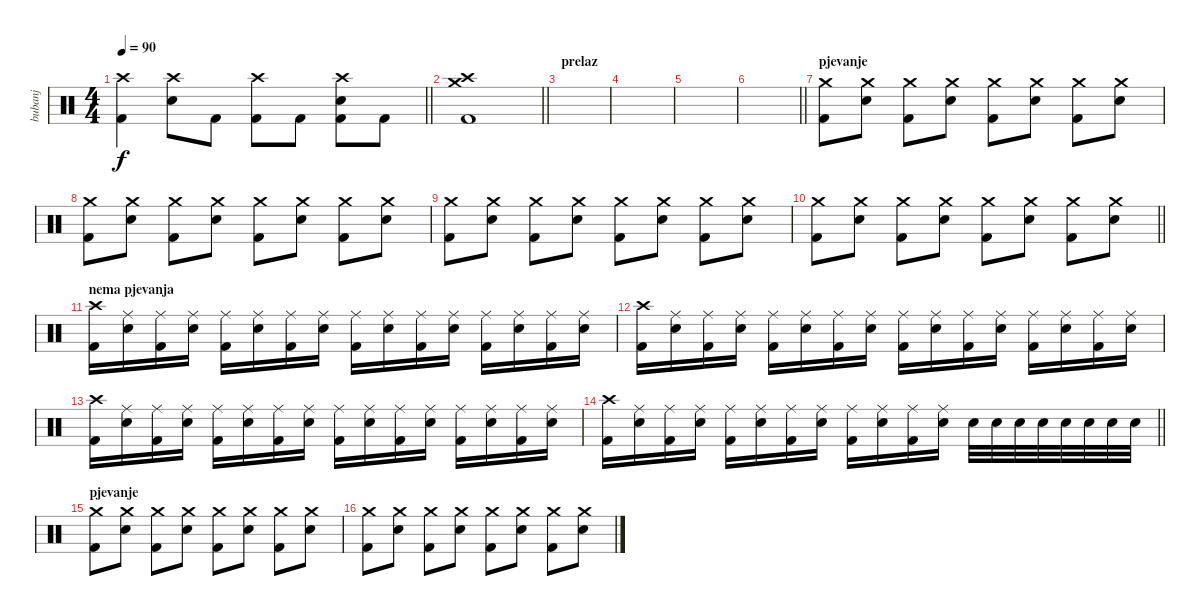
\track ("bubanj" "bubanj") {instrument percussion}
\staff {score}
\articulation defaults
\ts (4 4)
\tempo 90
\clef neutral
\barLineRight lightlight
\ks c
("Crash high (hit)" "Kick (hit) 2").4{dy f} ("Crash high (hit)" "Electric Snare (hit)").8 "Kick (hit) 2".8 ("Crash high (hit)" "Kick (hit) 2").8 "Kick (hit) 2".8 ("Crash high (hit)" "Electric Snare (hit)" "Kick (hit) 2").8 "Kick (hit) 2".8 |
\barLineRight lightlight
("Crash medium (hit)" "Crash high (hit)" "Kick (hit) 2").1 |
\section ("" "prelaz")
|
|
|
\barLineRight lightlight
|
\section ("" "pjevanje")
("Crash medium (hit)" "Kick (hit) 2").8 ("Crash medium (hit)" "Electric Snare (hit)").8 ("Crash medium (hit)" "Kick (hit) 2").8 ("Crash medium (hit)" "Electric Snare (hit)").8 ("Crash medium (hit)" "Kick (hit) 2").8 ("Crash medium (hit)" "Electric Snare (hit)").8 ("Crash medium (hit)" "Kick (hit) 2").8 ("Crash medium (hit)" "Electric Snare (hit)").8 |
("Crash medium (hit)" "Kick (hit) 2").8 ("Crash medium (hit)" "Electric Snare (hit)").8 ("Crash medium (hit)" "Kick (hit) 2").8 ("Crash medium (hit)" "Electric Snare (hit)").8 ("Crash medium (hit)" "Kick (hit) 2").8 ("Crash medium (hit)" "Electric Snare (hit)").8 ("Crash medium (hit)" "Kick (hit) 2").8 ("Crash medium (hit)" "Electric Snare (hit)").8 |
("Crash medium (hit)" "Kick (hit) 2").8 ("Crash medium (hit)" "Electric Snare (hit)").8 ("Crash medium (hit)" "Kick (hit) 2").8 ("Crash medium (hit)" "Electric Snare (hit)").8 ("Crash medium (hit)" "Kick (hit) 2").8 ("Crash medium (hit)" "Electric Snare (hit)").8 ("Crash medium (hit)" "Kick (hit) 2").8 ("Crash medium (hit)" "Electric Snare (hit)").8 |
\barLineRight lightlight
("Crash medium (hit)" "Kick (hit) 2").8 ("Crash medium (hit)" "Electric Snare (hit)").8 ("Crash medium (hit)" "Kick (hit) 2").8 ("Crash medium (hit)" "Electric Snare (hit)").8 ("Crash medium (hit)" "Kick (hit) 2").8 ("Crash medium (hit)" "Electric Snare (hit)").8 ("Crash medium (hit)" "Kick (hit) 2").8 ("Crash medium (hit)" "Electric Snare (hit)").8 |
\section ("" "nema pjevanja")
("Crash high (hit)" "Kick (hit) 2").16 ("Ride (middle)" "Electric Snare (hit)").16 ("Ride (middle)" "Kick (hit) 2").16 ("Ride (middle)" "Electric Snare (hit)").16 ("Ride (middle)" "Kick (hit) 2").16 ("Ride (middle)" "Electric Snare (hit)").16 ("Ride (middle)" "Kick (hit) 2").16 ("Ride (middle)" "Electric Snare (hit)").16 ("Ride (middle)" "Kick (hit) 2").16 ("Ride (middle)" "Electric Snare (hit)").16 ("Ride (middle)" "Kick (hit) 2").16 ("Ride (middle)" "Electric Snare (hit)").16 ("Ride (middle)" "Kick (hit) 2").16 ("Ride (middle)" "Electric Snare (hit)").16 ("Ride (middle)" "Kick (hit) 2").16 ("Ride (middle)" "Electric Snare (hit)").16 |
("Crash high (hit)" "Kick (hit) 2").16 ("Ride (middle)" "Electric Snare (hit)").16 ("Ride (middle)" "Kick (hit) 2").16 ("Ride (middle)" "Electric Snare (hit)").16 ("Ride (middle)" "Kick (hit) 2").16 ("Ride (middle)" "Electric Snare (hit)").16 ("Ride (middle)" "Kick (hit) 2").16 ("Ride (middle)" "Electric Snare (hit)").16 ("Ride (middle)" "Kick (hit) 2").16 ("Ride (middle)" "Electric Snare (hit)").16 ("Ride (middle)" "Kick (hit) 2").16 ("Ride (middle)" "Electric Snare (hit)").16 ("Ride (middle)" "Kick (hit) 2").16 ("Ride (middle)" "Electric Snare (hit)").16 ("Ride (middle)" "Kick (hit) 2").16 ("Ride (middle)" "Electric Snare (hit)").16 |
("Crash high (hit)" "Kick (hit) 2").16 ("Ride (middle)" "Electric Snare (hit)").16 ("Ride (middle)" "Kick (hit) 2").16 ("Ride (middle)" "Electric Snare (hit)").16 ("Ride (middle)" "Kick (hit) 2").16 ("Ride (middle)" "Electric Snare (hit)").16 ("Ride (middle)" "Kick (hit) 2").16 ("Ride (middle)" "Electric Snare (hit)").16 ("Ride (middle)" "Kick (hit) 2").16 ("Ride (middle)" "Electric Snare (hit)").16 ("Ride (middle)" "Kick (hit) 2").16 ("Ride (middle)" "Electric Snare (hit)").16 ("Ride (middle)" "Kick (hit) 2").16 ("Ride (middle)" "Electric Snare (hit)").16 ("Ride (middle)" "Kick (hit) 2").16 ("Ride (middle)" "Electric Snare (hit)").16 |
\barLineRight lightlight
("Crash high (hit)" "Kick (hit) 2").16 ("Ride (middle)" "Electric Snare (hit)").16 ("Ride (middle)" "Kick (hit) 2").16 ("Ride (middle)" "Electric Snare (hit)").16 ("Ride (middle)" "Kick (hit) 2").16 ("Ride (middle)" "Electric Snare (hit)").16 ("Ride (middle)" "Kick (hit) 2").16 ("Ride (middle)" "Electric Snare (hit)").16 ("Ride (middle)" "Kick (hit) 2").16 ("Ride (middle)" "Electric Snare (hit)").16 ("Ride (middle)" "Kick (hit) 2").16 ("Ride (middle)" "Electric Snare (hit)").16 "Electric Snare (hit)".32 "Electric Snare (hit)".32 "Electric Snare (hit)".32 "Electric Snare (hit)".32 "Electric Snare (hit)".32 "Electric Snare (hit)".32 "Electric Snare (hit)".32 "Electric Snare (hit)".32 |
\section ("" "pjevanje")
("Crash medium (hit)" "Kick (hit) 2").8 ("Crash medium (hit)" "Electric Snare (hit)").8 ("Crash medium (hit)" "Kick (hit) 2").8 ("Crash medium (hit)" "Electric Snare (hit)").8 ("Crash medium (hit)" "Kick (hit) 2").8 ("Crash medium (hit)" "Electric Snare (hit)").8 ("Crash medium (hit)" "Kick (hit) 2").8 ("Crash medium (hit)" "Electric Snare (hit)").8 |
("Crash medium (hit)" "Kick (hit) 2").8 ("Crash medium (hit)" "Electric Snare (hit)").8 ("Crash medium (hit)" "Kick (hit) 2").8 ("Crash medium (hit)" "Electric Snare (hit)").8 ("Crash medium (hit)" "Kick (hit) 2").8 ("Crash medium (hit)" "Electric Snare (hit)").8 ("Crash medium (hit)" "Kick (hit) 2").8 ("Crash medium (hit)" "Electric Snare (hit)").8
